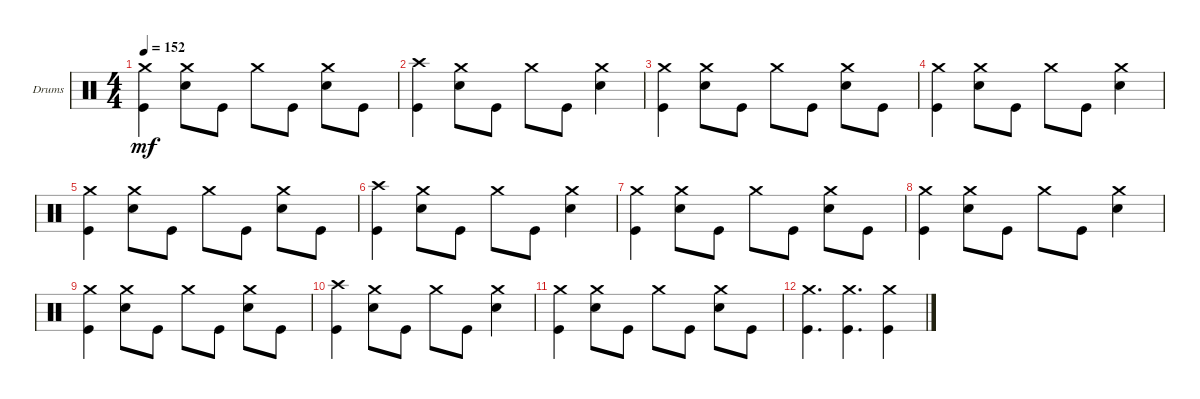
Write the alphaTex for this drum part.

\defaultSystemsLayout 4
\bracketExtendMode groupsimilarinstruments
\firstSystemTrackNameOrientation horizontal
\otherSystemsTrackNameOrientation horizontal
\track ("Drums" "Drums") {instrument percussion}
\staff {score}
\articulation defaults
\ts (4 4)
\tempo 152
\clef neutral
\ks c
("Kick (hit)" "Crash medium (hit)").4{dy mf} ("Snare (hit) 2" "Crash medium (hit)").8 "Kick (hit)".8 "Crash medium (hit)".8 "Kick (hit)".8 ("Snare (hit) 2" "Crash medium (hit)").8 "Kick (hit)".8 |
("Kick (hit)" "Crash high (hit)").4 ("Snare (hit) 2" "Crash medium (hit)").8 "Kick (hit)".8 "Crash medium (hit)".8 "Kick (hit)".8 ("Snare (hit) 2" "Crash medium (hit)").4 |
("Kick (hit)" "Crash medium (hit)").4 ("Snare (hit) 2" "Crash medium (hit)").8 "Kick (hit)".8 "Crash medium (hit)".8 "Kick (hit)".8 ("Snare (hit) 2" "Crash medium (hit)").8 "Kick (hit)".8 |
("Kick (hit)" "Crash medium (hit)").4 ("Snare (hit) 2" "Crash medium (hit)").8 "Kick (hit)".8 "Crash medium (hit)".8 "Kick (hit)".8 ("Snare (hit) 2" "Crash medium (hit)").4 |
("Kick (hit)" "Crash medium (hit)").4 ("Snare (hit) 2" "Crash medium (hit)").8 "Kick (hit)".8 "Crash medium (hit)".8 "Kick (hit)".8 ("Snare (hit) 2" "Crash medium (hit)").8 "Kick (hit)".8 |
("Kick (hit)" "Crash high (hit)").4 ("Snare (hit) 2" "Crash medium (hit)").8 "Kick (hit)".8 "Crash medium (hit)".8 "Kick (hit)".8 ("Snare (hit) 2" "Crash medium (hit)").4 |
("Kick (hit)" "Crash medium (hit)").4 ("Snare (hit) 2" "Crash medium (hit)").8 "Kick (hit)".8 "Crash medium (hit)".8 "Kick (hit)".8 ("Snare (hit) 2" "Crash medium (hit)").8 "Kick (hit)".8 |
("Kick (hit)" "Crash medium (hit)").4 ("Snare (hit) 2" "Crash medium (hit)").8 "Kick (hit)".8 "Crash medium (hit)".8 "Kick (hit)".8 ("Snare (hit) 2" "Crash medium (hit)").4 |
("Kick (hit)" "Crash medium (hit)").4 ("Snare (hit) 2" "Crash medium (hit)").8 "Kick (hit)".8 "Crash medium (hit)".8 "Kick (hit)".8 ("Snare (hit) 2" "Crash medium (hit)").8 "Kick (hit)".8 |
("Kick (hit)" "Crash high (hit)").4 ("Snare (hit) 2" "Crash medium (hit)").8 "Kick (hit)".8 "Crash medium (hit)".8 "Kick (hit)".8 ("Snare (hit) 2" "Crash medium (hit)").4 |
("Kick (hit)" "Crash medium (hit)").4 ("Snare (hit) 2" "Crash medium (hit)").8 "Kick (hit)".8 "Crash medium (hit)".8 "Kick (hit)".8 ("Snare (hit) 2" "Crash medium (hit)").8 "Kick (hit)".8 |
("Kick (hit)" "Crash medium (hit)").4{d} ("Kick (hit)" "Crash medium (hit)").4{d} ("Crash medium (hit)" "Kick (hit)").4
